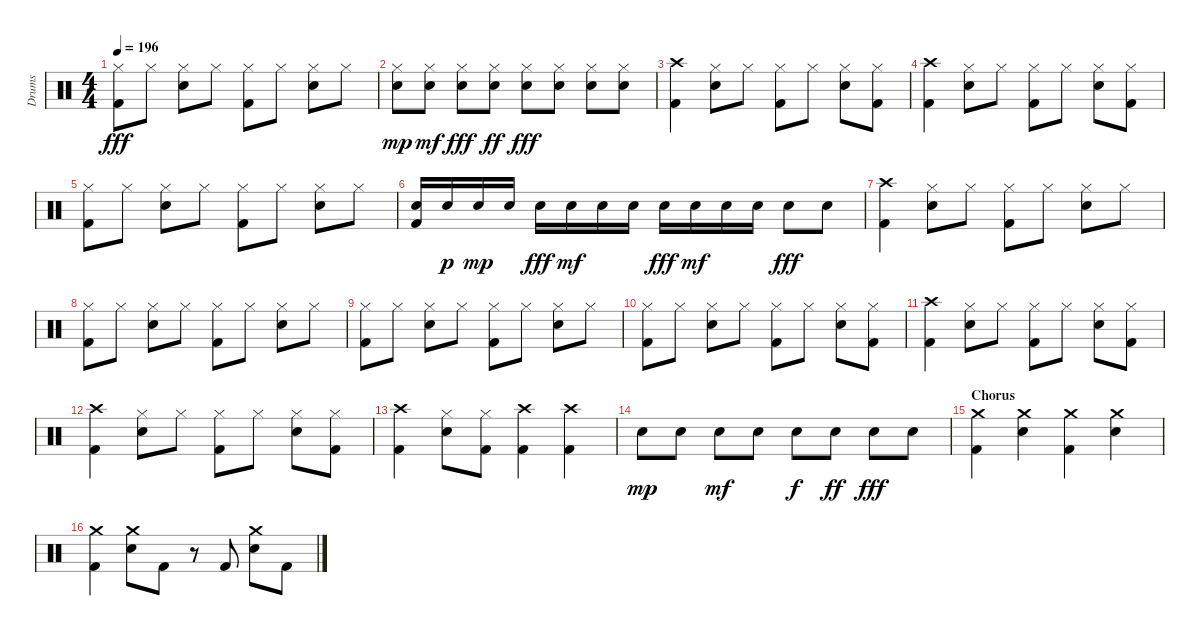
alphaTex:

\track ("Drums" "Drums") {instrument percussion}
\staff {score}
\articulation defaults
\ts (4 4)
\tempo 196
\clef neutral
\ks c
("Hi-Hat (closed)" "Kick (hit) 2").8{dy fff} "Hi-Hat (closed)".8 ("Hi-Hat (closed)" "Snare (hit) 2").8 "Hi-Hat (closed)".8 ("Hi-Hat (closed)" "Kick (hit) 2").8 "Hi-Hat (closed)".8 ("Hi-Hat (closed)" "Snare (hit) 2").8 "Hi-Hat (closed)".8 |
("Hi-Hat (closed)" "Snare (hit) 2").8{dy mp} ("Hi-Hat (closed)" "Snare (hit) 2").8{dy mf} ("Hi-Hat (closed)" "Snare (hit) 2").8{dy fff} ("Hi-Hat (closed)" "Snare (hit) 2").8{dy ff} ("Hi-Hat (closed)" "Snare (hit) 2").8{dy fff} ("Hi-Hat (closed)" "Snare (hit) 2").8 ("Hi-Hat (closed)" "Snare (hit) 2").8 ("Hi-Hat (closed)" "Snare (hit) 2").8 |
("Crash high (hit)" "Kick (hit) 2").4 ("Hi-Hat (closed)" "Snare (hit) 2").8 "Hi-Hat (closed)".8 ("Hi-Hat (closed)" "Kick (hit) 2").8 "Hi-Hat (closed)".8 ("Hi-Hat (closed)" "Snare (hit) 2").8 ("Hi-Hat (closed)" "Kick (hit) 2").8 |
("Crash high (hit)" "Kick (hit) 2").4 ("Hi-Hat (closed)" "Snare (hit) 2").8 "Hi-Hat (closed)".8 ("Hi-Hat (closed)" "Kick (hit) 2").8 "Hi-Hat (closed)".8 ("Hi-Hat (closed)" "Snare (hit) 2").8 ("Hi-Hat (closed)" "Kick (hit) 2").8 |
("Hi-Hat (closed)" "Kick (hit) 2").8 "Hi-Hat (closed)".8 ("Hi-Hat (closed)" "Snare (hit) 2").8 "Hi-Hat (closed)".8 ("Hi-Hat (closed)" "Kick (hit) 2").8 "Hi-Hat (closed)".8 ("Hi-Hat (closed)" "Snare (hit) 2").8 "Hi-Hat (closed)".8 |
("Snare (hit) 2" "Kick (hit) 2").16 "Snare (hit) 2".16{dy p} "Snare (hit) 2".16{dy mp} "Snare (hit) 2".16 "Snare (hit) 2".16{dy fff} "Snare (hit) 2".16{dy mf} "Snare (hit) 2".16 "Snare (hit) 2".16 "Snare (hit) 2".16{dy fff} "Snare (hit) 2".16{dy mf} "Snare (hit) 2".16 "Snare (hit) 2".16 "Snare (hit) 2".8{dy fff} "Snare (hit) 2".8 |
("Crash high (hit)" "Kick (hit) 2").4 ("Hi-Hat (closed)" "Snare (hit) 2").8 "Hi-Hat (closed)".8 ("Hi-Hat (closed)" "Kick (hit) 2").8 "Hi-Hat (closed)".8 ("Hi-Hat (closed)" "Snare (hit) 2").8 "Hi-Hat (closed)".8 |
("Hi-Hat (closed)" "Kick (hit) 2").8 "Hi-Hat (closed)".8 ("Hi-Hat (closed)" "Snare (hit) 2").8 "Hi-Hat (closed)".8 ("Hi-Hat (closed)" "Kick (hit) 2").8 "Hi-Hat (closed)".8 ("Hi-Hat (closed)" "Snare (hit) 2").8 "Hi-Hat (closed)".8 |
("Hi-Hat (closed)" "Kick (hit) 2").8 "Hi-Hat (closed)".8 ("Hi-Hat (closed)" "Snare (hit) 2").8 "Hi-Hat (closed)".8 ("Hi-Hat (closed)" "Kick (hit) 2").8 "Hi-Hat (closed)".8 ("Hi-Hat (closed)" "Snare (hit) 2").8 "Hi-Hat (closed)".8 |
("Hi-Hat (closed)" "Kick (hit) 2").8 "Hi-Hat (closed)".8 ("Hi-Hat (closed)" "Snare (hit) 2").8 "Hi-Hat (closed)".8 ("Hi-Hat (closed)" "Kick (hit) 2").8 "Hi-Hat (closed)".8 ("Hi-Hat (closed)" "Snare (hit) 2").8 ("Hi-Hat (closed)" "Kick (hit) 2").8 |
("Crash high (hit)" "Kick (hit) 2").4 ("Hi-Hat (closed)" "Snare (hit) 2").8 "Hi-Hat (closed)".8 ("Hi-Hat (closed)" "Kick (hit) 2").8 "Hi-Hat (closed)".8 ("Hi-Hat (closed)" "Snare (hit) 2").8 ("Hi-Hat (closed)" "Kick (hit) 2").8 |
("Crash high (hit)" "Kick (hit) 2").4 ("Hi-Hat (closed)" "Snare (hit) 2").8 "Hi-Hat (closed)".8 ("Hi-Hat (closed)" "Kick (hit) 2").8 "Hi-Hat (closed)".8 ("Hi-Hat (closed)" "Snare (hit) 2").8 ("Hi-Hat (closed)" "Kick (hit) 2").8 |
("Crash high (hit)" "Kick (hit) 2").4 ("Hi-Hat (closed)" "Snare (hit) 2").8 ("Hi-Hat (closed)" "Kick (hit) 2").8 ("Crash high (hit)" "Kick (hit) 2").4 ("Crash high (hit)" "Kick (hit) 2").4 |
"Snare (hit) 2".8{dy mp} "Snare (hit) 2".8 "Snare (hit) 2".8{dy mf} "Snare (hit) 2".8 "Snare (hit) 2".8{dy f} "Snare (hit) 2".8{dy ff} "Snare (hit) 2".8{dy fff} "Snare (hit) 2".8 |
\section ("" "Chorus")
("Crash medium (hit)" "Kick (hit) 2").4 ("Crash medium (hit)" "Snare (hit) 2").4 ("Crash medium (hit)" "Kick (hit) 2").4 ("Crash medium (hit)" "Snare (hit) 2").4 |
("Crash medium (hit)" "Kick (hit) 2").4 ("Crash medium (hit)" "Snare (hit) 2").8 "Kick (hit) 2".8 r.8 "Kick (hit) 2".8 ("Crash medium (hit)" "Snare (hit) 2").8 "Kick (hit) 2".8
